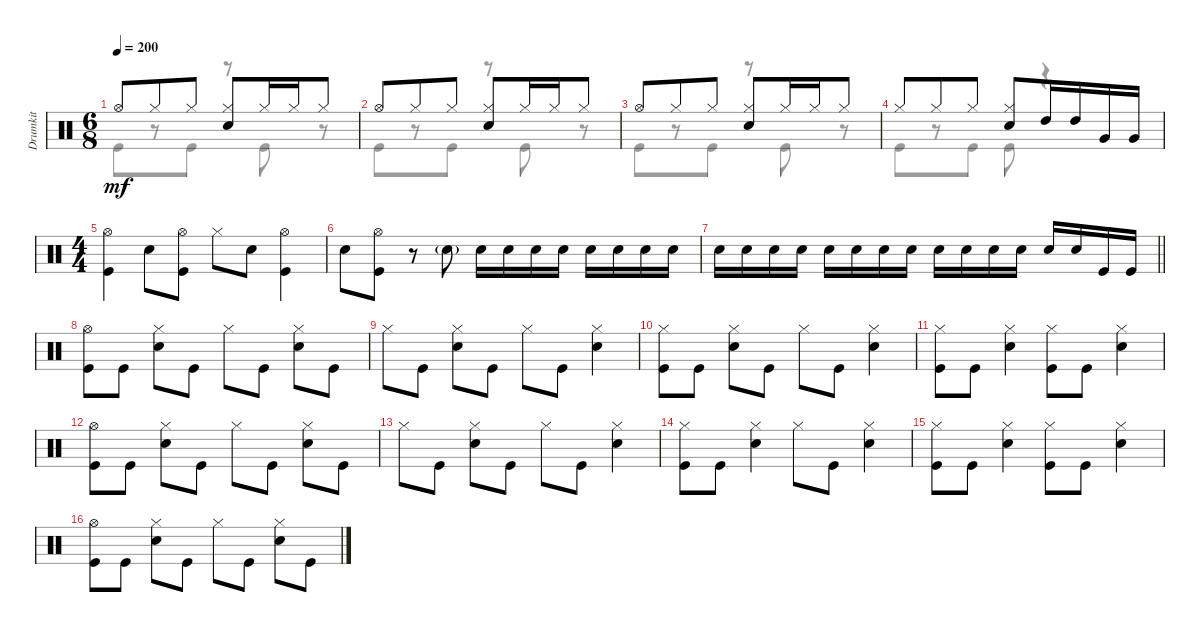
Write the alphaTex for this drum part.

\track ("Drumkit" "Drumkit") {instrument percussion}
\staff {score}
\articulation defaults
\voice
\ts (6 8)
\tempo 200
\clef neutral
\ks c "Hi-Hat (open)".8{dy mf} "Hi-Hat (closed)".8 "Hi-Hat (closed)".8
("Hi-Hat (closed)" "Snare (hit) 2").8 "Hi-Hat (closed)".16 "Hi-Hat (closed)".16 "Hi-Hat (closed)".8 |
"Hi-Hat (open)".8 "Hi-Hat (closed)".8 "Hi-Hat (closed)".8 ("Hi-Hat (closed)" "Snare (hit) 2").8 "Hi-Hat (closed)".16 "Hi-Hat (closed)".16 "Hi-Hat (closed)".8 |
"Hi-Hat (open)".8 "Hi-Hat (closed)".8 "Hi-Hat (closed)".8 ("Hi-Hat (closed)" "Snare (hit) 2").8 "Hi-Hat (closed)".16 "Hi-Hat (closed)".16 "Hi-Hat (closed)".8 |
"Hi-Hat (closed)".8 "Hi-Hat (closed)".8 "Hi-Hat (closed)".8 ("Hi-Hat (closed)" "Snare (hit) 2").8 "High Tom (hit)".16 "High Tom (hit)".16 "Very Low Tom (hit)".16 "Very Low Tom (hit)".16 |
\ts (4 4)
("Hi-Hat (open)" "Kick (hit)").4 "Snare (hit) 2".8 ("Hi-Hat (open)" "Kick (hit)").8 "Hi-Hat (closed)".8 "Snare (hit) 2".8 ("Hi-Hat (open)" "Kick (hit)").4 |
"Snare (hit) 2".8 ("Hi-Hat (open)" "Kick (hit)").8 r.8 "Snare (hit) 2"{g}.8 "Snare (hit) 2".16 "Snare (hit) 2".16 "Snare (hit) 2".16 "Snare (hit) 2".16 "Snare (hit) 2".16 "Snare (hit) 2".16 "Snare (hit) 2".16 "Snare (hit) 2".16 |
\barLineRight lightlight "Snare (hit) 2".16 "Snare (hit) 2".16 "Snare (hit) 2".16 "Snare (hit) 2".16 "Snare (hit) 2".16 "Snare (hit) 2".16 "Snare (hit) 2".16 "Snare (hit) 2".16 "Snare (hit) 2".16 "Snare (hit) 2".16 "Snare (hit) 2".16 "Snare (hit) 2".16 "Snare (hit) 2".16 "Snare (hit) 2".16 "Kick (hit)".16 "Kick (hit)".16
|
("Hi-Hat (open)" "Kick (hit)").8 "Kick (hit)".8 ("Hi-Hat (closed)" "Snare (hit) 2").8 "Kick (hit)".8 "Hi-Hat (closed)".8 "Kick (hit)".8 ("Snare (hit) 2" "Hi-Hat (closed)").8 "Kick (hit)".8 |
"Hi-Hat (closed)".8 "Kick (hit)".8 ("Hi-Hat (closed)" "Snare (hit) 2").8 "Kick (hit)".8 "Hi-Hat (closed)".8 "Kick (hit)".8 ("Hi-Hat (closed)" "Snare (hit) 2").4 |
("Hi-Hat (closed)" "Kick (hit)").8 "Kick (hit)".8 ("Snare (hit) 2" "Hi-Hat (closed)").8 "Kick (hit)".8 "Hi-Hat (closed)".8 "Kick (hit)".8 ("Hi-Hat (closed)" "Snare (hit) 2").4 |
("Kick (hit)" "Hi-Hat (closed)").8 "Kick (hit)".8 ("Snare (hit) 2" "Hi-Hat (closed)").4 ("Hi-Hat (closed)" "Kick (hit)").8 "Kick (hit)".8 ("Hi-Hat (closed)" "Snare (hit) 2").4 |
("Hi-Hat (open)" "Kick (hit)").8 "Kick (hit)".8 ("Hi-Hat (closed)" "Snare (hit) 2").8 "Kick (hit)".8 "Hi-Hat (closed)".8 "Kick (hit)".8 ("Snare (hit) 2" "Hi-Hat (closed)").8 "Kick (hit)".8 |
"Hi-Hat (closed)".8 "Kick (hit)".8 ("Hi-Hat (closed)" "Snare (hit) 2").8 "Kick (hit)".8 "Hi-Hat (closed)".8 "Kick (hit)".8 ("Hi-Hat (closed)" "Snare (hit) 2").4 |
("Hi-Hat (closed)" "Kick (hit)").8 "Kick (hit)".8 ("Snare (hit) 2" "Hi-Hat (closed)").4 "Hi-Hat (closed)".8 "Kick (hit)".8 ("Hi-Hat (closed)" "Snare (hit) 2").4 |
("Kick (hit)" "Hi-Hat (closed)").8 "Kick (hit)".8 ("Snare (hit) 2" "Hi-Hat (closed)").4 ("Hi-Hat (closed)" "Kick (hit)").8 "Kick (hit)".8 ("Hi-Hat (closed)" "Snare (hit) 2").4 |
("Hi-Hat (open)" "Kick (hit)").8 "Kick (hit)".8 ("Hi-Hat (closed)" "Snare (hit) 2").8 "Kick (hit)".8 "Hi-Hat (closed)".8 "Kick (hit)".8 ("Snare (hit) 2" "Hi-Hat (closed)").8 "Kick (hit)".8
\voice
\clef neutral
\ottava regular
\simile none
\ks c "Kick (hit)".8{dy mf}
r.8 "Kick (hit)".8 r.8 "Kick (hit)".8 r.8 |
"Kick (hit)".8 r.8 "Kick (hit)".8 r.8 "Kick (hit)".8 r.8 |
"Kick (hit)".8 r.8 "Kick (hit)".8 r.8 "Kick (hit)".8 r.8 |
"Kick (hit)".8 r.8 "Kick (hit)".8 "Kick (hit)".8 r.4 |
|
|
\barLineRight lightlight
|
|
|
|
|
|
|
|
|
